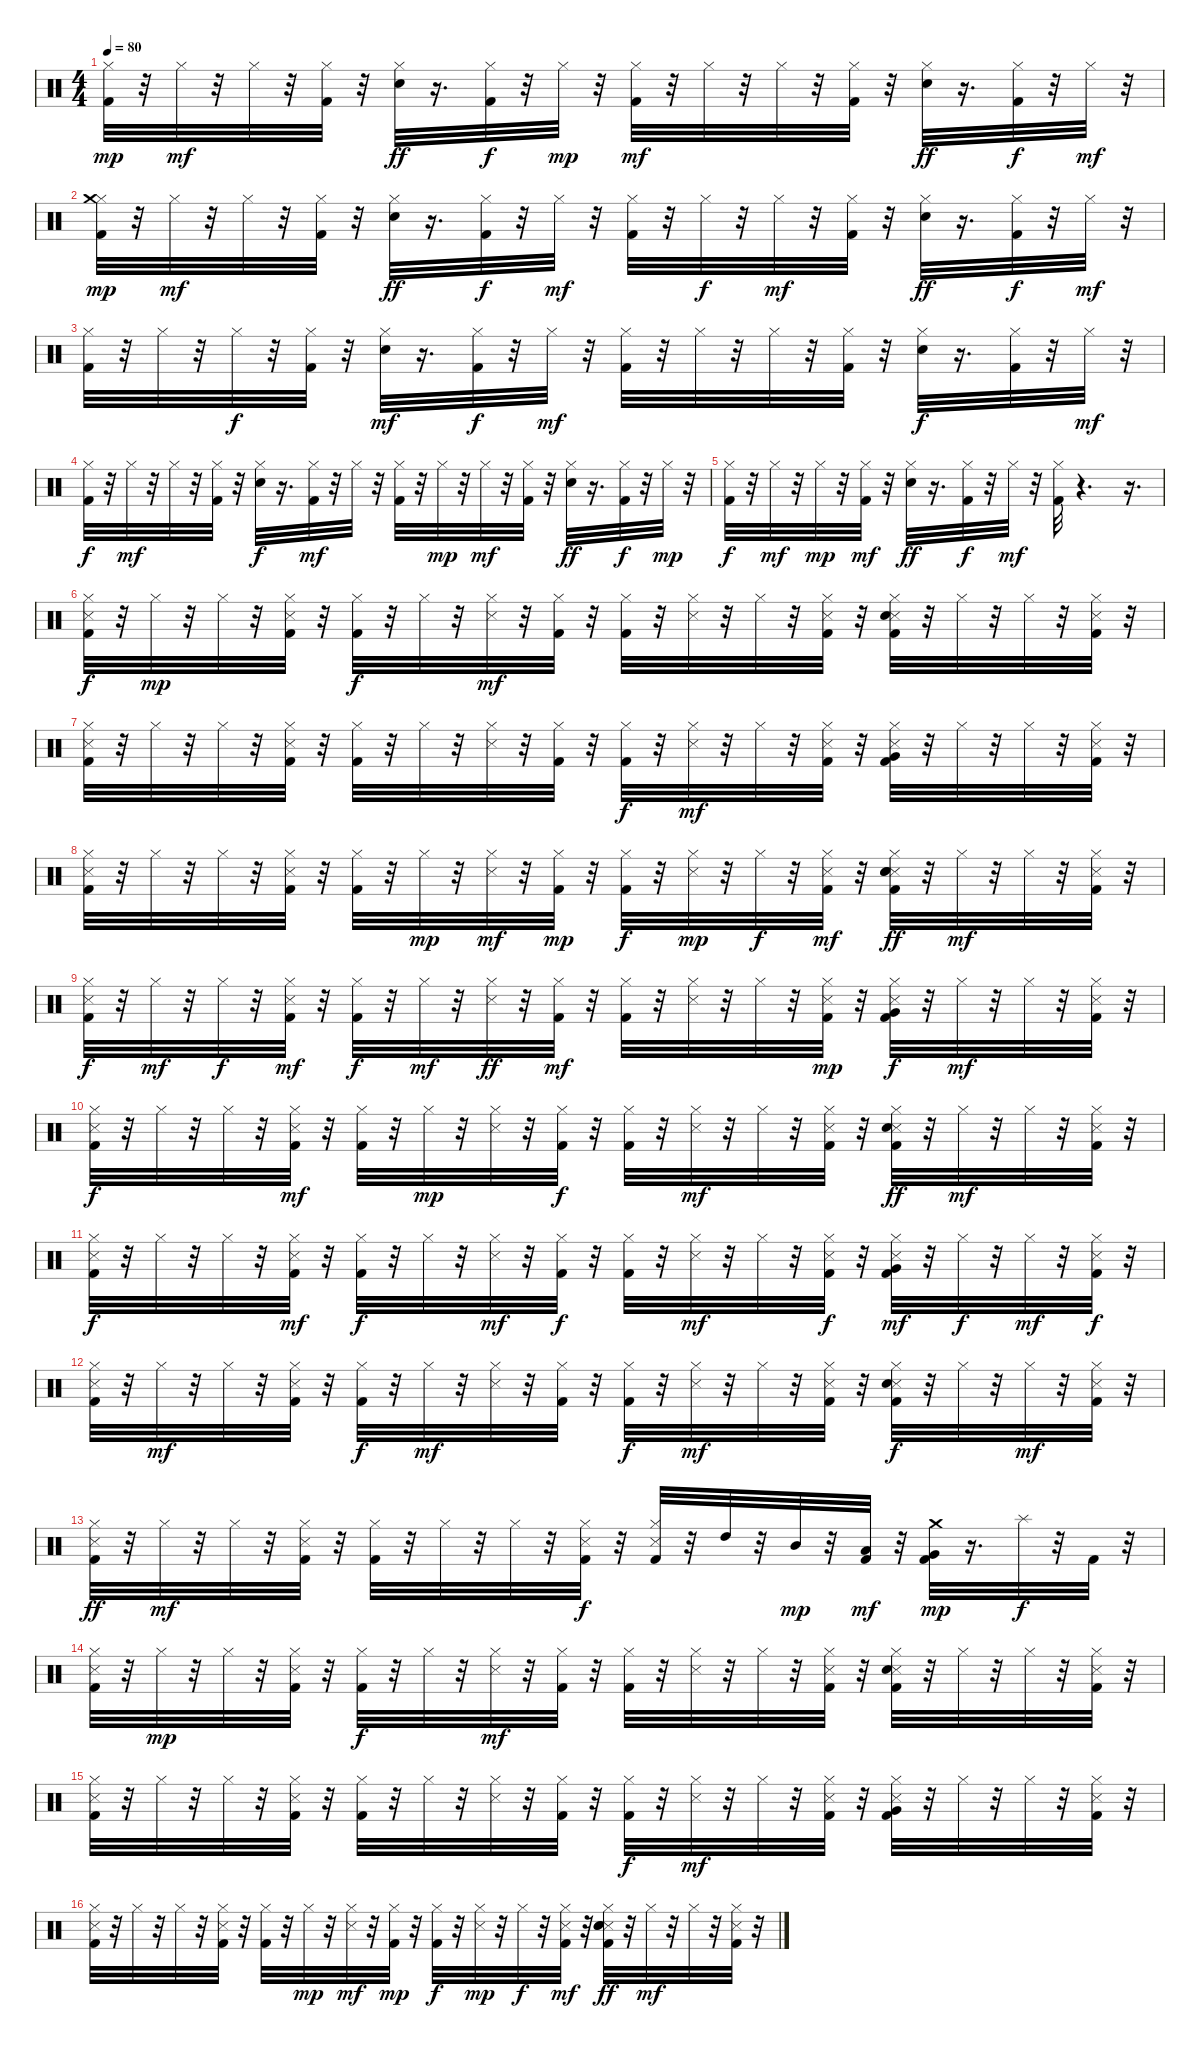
\track "" {instrument percussion}
\staff {score}
\articulation defaults
\ts (4 4)
\tempo 80
\clef neutral
\ks c
("Kick (hit) 2" "Hi-Hat (closed)").32{dy mp} r.32 "Hi-Hat (closed)".32{dy mf} r.32 "Hi-Hat (closed)".32 r.32 ("Kick (hit) 2" "Hi-Hat (closed)").32 r.32 ("Hi-Hat (closed)" "Snare (hit) 2").32{dy ff} r.16{d} ("Kick (hit) 2" "Hi-Hat (closed)").32{dy f} r.32 "Hi-Hat (closed)".32{dy mp} r.32 ("Kick (hit) 2" "Hi-Hat (closed)").32{dy mf} r.32 "Hi-Hat (closed)".32 r.32 "Hi-Hat (closed)".32 r.32 ("Kick (hit) 2" "Hi-Hat (closed)").32 r.32 ("Hi-Hat (closed)" "Snare (hit) 2").32{dy ff} r.16{d} ("Kick (hit) 2" "Hi-Hat (closed)").32{dy f} r.32 "Hi-Hat (closed)".32{dy mf} r.32 |
("Kick (hit) 2" "Hi-Hat (closed)" "Crash medium (hit)").32{dy mp} r.32 "Hi-Hat (closed)".32{dy mf} r.32 "Hi-Hat (closed)".32 r.32 ("Kick (hit) 2" "Hi-Hat (closed)").32 r.32 ("Hi-Hat (closed)" "Snare (hit) 2").32{dy ff} r.16{d} ("Kick (hit) 2" "Hi-Hat (closed)").32{dy f} r.32 "Hi-Hat (closed)".32{dy mf} r.32 ("Kick (hit) 2" "Hi-Hat (closed)").32 r.32 "Hi-Hat (closed)".32{dy f} r.32 "Hi-Hat (closed)".32{dy mf} r.32 ("Kick (hit) 2" "Hi-Hat (closed)").32 r.32 ("Hi-Hat (closed)" "Snare (hit) 2").32{dy ff} r.16{d} ("Kick (hit) 2" "Hi-Hat (closed)").32{dy f} r.32 "Hi-Hat (closed)".32{dy mf} r.32 |
("Kick (hit) 2" "Hi-Hat (closed)").32 r.32 "Hi-Hat (closed)".32 r.32 "Hi-Hat (closed)".32{dy f} r.32 ("Kick (hit) 2" "Hi-Hat (closed)").32 r.32 ("Hi-Hat (closed)" "Snare (hit) 2").32{dy mf} r.16{d} ("Kick (hit) 2" "Hi-Hat (closed)").32{dy f} r.32 "Hi-Hat (closed)".32{dy mf} r.32 ("Kick (hit) 2" "Hi-Hat (closed)").32 r.32 "Hi-Hat (closed)".32 r.32 "Hi-Hat (closed)".32 r.32 ("Kick (hit) 2" "Hi-Hat (closed)").32 r.32 ("Hi-Hat (closed)" "Snare (hit) 2").32{dy f} r.16{d} ("Kick (hit) 2" "Hi-Hat (closed)").32 r.32 "Hi-Hat (closed)".32{dy mf} r.32 |
("Kick (hit) 2" "Hi-Hat (closed)").32{dy f} r.32 "Hi-Hat (closed)".32{dy mf} r.32 "Hi-Hat (closed)".32 r.32 ("Kick (hit) 2" "Hi-Hat (closed)").32 r.32 ("Hi-Hat (closed)" "Snare (hit) 2").32{dy f} r.16{d} ("Kick (hit) 2" "Hi-Hat (closed)").32{dy mf} r.32 "Hi-Hat (closed)".32 r.32 ("Kick (hit) 2" "Hi-Hat (closed)").32 r.32 "Hi-Hat (closed)".32{dy mp} r.32 "Hi-Hat (closed)".32{dy mf} r.32 ("Kick (hit) 2" "Hi-Hat (closed)").32 r.32 ("Hi-Hat (closed)" "Snare (hit) 2").32{dy ff} r.16{d} ("Kick (hit) 2" "Hi-Hat (closed)").32{dy f} r.32 "Hi-Hat (closed)".32{dy mp} r.32 |
("Kick (hit) 2" "Hi-Hat (closed)").32{dy f} r.32 "Hi-Hat (closed)".32{dy mf} r.32 "Hi-Hat (closed)".32{dy mp} r.32 ("Kick (hit) 2" "Hi-Hat (closed)").32{dy mf} r.32 ("Hi-Hat (closed)" "Snare (hit) 2").32{dy ff} r.16{d} ("Kick (hit) 2" "Hi-Hat (closed)").32{dy f} r.32 "Hi-Hat (closed)".32{dy mf} r.32 ("Kick (hit) 2" "Hi-Hat (closed)").32 r.4{d} r.16{d} |
("Kick (hit) 2" "Snare (side stick) 3" "Hi-Hat (closed)").32{dy f} r.32 "Hi-Hat (closed)".32{dy mp} r.32 "Hi-Hat (closed)".32 r.32 ("Kick (hit) 2" "Snare (side stick) 3" "Hi-Hat (closed)").32 r.32 ("Kick (hit) 2" "Hi-Hat (closed)").32{dy f} r.32 "Hi-Hat (closed)".32 r.32 ("Snare (side stick) 3" "Hi-Hat (closed)").32{dy mf} r.32 ("Kick (hit) 2" "Hi-Hat (closed)").32 r.32 ("Kick (hit) 2" "Hi-Hat (closed)").32 r.32 ("Snare (side stick) 3" "Hi-Hat (closed)").32 r.32 "Hi-Hat (closed)".32 r.32 ("Kick (hit) 2" "Snare (side stick) 3" "Hi-Hat (closed)").32 r.32 ("Kick (hit) 2" "Snare (side stick) 3" "Snare (hit) 2" "Hi-Hat (closed)").32 r.32 "Hi-Hat (closed)".32 r.32 "Hi-Hat (closed)".32 r.32 ("Kick (hit) 2" "Snare (side stick) 3" "Hi-Hat (closed)").32 r.32 |
("Kick (hit) 2" "Snare (side stick) 3" "Hi-Hat (closed)").32 r.32 "Hi-Hat (closed)".32 r.32 "Hi-Hat (closed)".32 r.32 ("Kick (hit) 2" "Snare (side stick) 3" "Hi-Hat (closed)").32 r.32 ("Kick (hit) 2" "Hi-Hat (closed)").32 r.32 "Hi-Hat (closed)".32 r.32 ("Snare (side stick) 3" "Hi-Hat (closed)").32 r.32 ("Kick (hit) 2" "Hi-Hat (closed)").32 r.32 ("Kick (hit) 2" "Hi-Hat (closed)").32{dy f} r.32 ("Snare (side stick) 3" "Hi-Hat (closed)").32{dy mf} r.32 "Hi-Hat (closed)".32 r.32 ("Kick (hit) 2" "Snare (side stick) 3" "Hi-Hat (closed)").32 r.32 ("Kick (hit) 2" "Snare (side stick) 3" "Very Low Tom (hit)" "Hi-Hat (closed)").32 r.32 "Hi-Hat (closed)".32 r.32 "Hi-Hat (closed)".32 r.32 ("Kick (hit) 2" "Snare (side stick) 3" "Hi-Hat (closed)").32 r.32 |
("Kick (hit) 2" "Snare (side stick) 3" "Hi-Hat (closed)").32 r.32 "Hi-Hat (closed)".32 r.32 "Hi-Hat (closed)".32 r.32 ("Kick (hit) 2" "Snare (side stick) 3" "Hi-Hat (closed)").32 r.32 ("Kick (hit) 2" "Hi-Hat (closed)").32 r.32 "Hi-Hat (closed)".32{dy mp} r.32 ("Snare (side stick) 3" "Hi-Hat (closed)").32{dy mf} r.32 ("Kick (hit) 2" "Hi-Hat (closed)").32{dy mp} r.32 ("Kick (hit) 2" "Hi-Hat (closed)").32{dy f} r.32 ("Snare (side stick) 3" "Hi-Hat (closed)").32{dy mp} r.32 "Hi-Hat (closed)".32{dy f} r.32 ("Kick (hit) 2" "Snare (side stick) 3" "Hi-Hat (closed)").32{dy mf} r.32 ("Kick (hit) 2" "Snare (side stick) 3" "Snare (hit) 2" "Electric Snare (hit)" "Hi-Hat (closed)").32{dy ff} r.32 "Hi-Hat (closed)".32{dy mf} r.32 "Hi-Hat (closed)".32 r.32 ("Kick (hit) 2" "Snare (side stick) 3" "Hi-Hat (closed)").32 r.32 |
("Kick (hit) 2" "Snare (side stick) 3" "Hi-Hat (closed)").32{dy f} r.32 "Hi-Hat (closed)".32{dy mf} r.32 "Hi-Hat (closed)".32{dy f} r.32 ("Kick (hit) 2" "Snare (side stick) 3" "Hi-Hat (closed)").32{dy mf} r.32 ("Kick (hit) 2" "Hi-Hat (closed)").32{dy f} r.32 "Hi-Hat (closed)".32{dy mf} r.32 ("Snare (side stick) 3" "Hi-Hat (closed)").32{dy ff} r.32 ("Kick (hit) 2" "Hi-Hat (closed)").32{dy mf} r.32 ("Kick (hit) 2" "Hi-Hat (closed)").32 r.32 ("Snare (side stick) 3" "Hi-Hat (closed)").32 r.32 "Hi-Hat (closed)".32 r.32 ("Kick (hit) 2" "Snare (side stick) 3" "Hi-Hat (closed)").32{dy mp} r.32 ("Kick (hit) 2" "Snare (side stick) 3" "Very Low Tom (hit)" "Hi-Hat (closed)").32{dy f} r.32 "Hi-Hat (closed)".32{dy mf} r.32 "Hi-Hat (closed)".32 r.32 ("Kick (hit) 2" "Snare (side stick) 3" "Hi-Hat (closed)").32 r.32 |
("Kick (hit) 2" "Snare (side stick) 3" "Hi-Hat (closed)").32{dy f} r.32 "Hi-Hat (closed)".32 r.32 "Hi-Hat (closed)".32 r.32 ("Kick (hit) 2" "Snare (side stick) 3" "Hi-Hat (closed)").32{dy mf} r.32 ("Kick (hit) 2" "Hi-Hat (closed)").32 r.32 "Hi-Hat (closed)".32{dy mp} r.32 ("Snare (side stick) 3" "Hi-Hat (closed)").32 r.32 ("Kick (hit) 2" "Hi-Hat (closed)").32{dy f} r.32 ("Kick (hit) 2" "Hi-Hat (closed)").32 r.32 ("Snare (side stick) 3" "Hi-Hat (closed)").32{dy mf} r.32 "Hi-Hat (closed)".32 r.32 ("Kick (hit) 2" "Snare (side stick) 3" "Hi-Hat (closed)").32 r.32 ("Kick (hit) 2" "Snare (side stick) 3" "Snare (hit) 2" "Hi-Hat (closed)").32{dy ff} r.32 "Hi-Hat (closed)".32{dy mf} r.32 "Hi-Hat (closed)".32 r.32 ("Kick (hit) 2" "Snare (side stick) 3" "Hi-Hat (closed)").32 r.32 |
("Kick (hit) 2" "Snare (side stick) 3" "Hi-Hat (closed)").32{dy f} r.32 "Hi-Hat (closed)".32 r.32 "Hi-Hat (closed)".32 r.32 ("Kick (hit) 2" "Snare (side stick) 3" "Hi-Hat (closed)").32{dy mf} r.32 ("Kick (hit) 2" "Hi-Hat (closed)").32{dy f} r.32 "Hi-Hat (closed)".32 r.32 ("Snare (side stick) 3" "Hi-Hat (closed)").32{dy mf} r.32 ("Kick (hit) 2" "Hi-Hat (closed)").32{dy f} r.32 ("Kick (hit) 2" "Hi-Hat (closed)").32 r.32 ("Snare (side stick) 3" "Hi-Hat (closed)").32{dy mf} r.32 "Hi-Hat (closed)".32 r.32 ("Kick (hit) 2" "Snare (side stick) 3" "Hi-Hat (closed)").32{dy f} r.32 ("Kick (hit) 2" "Snare (side stick) 3" "Very Low Tom (hit)" "Hi-Hat (closed)").32{dy mf} r.32 "Hi-Hat (closed)".32{dy f} r.32 "Hi-Hat (closed)".32{dy mf} r.32 ("Kick (hit) 2" "Snare (side stick) 3" "Hi-Hat (closed)").32{dy f} r.32 |
("Kick (hit) 2" "Snare (side stick) 3" "Hi-Hat (closed)").32 r.32 "Hi-Hat (closed)".32{dy mf} r.32 "Hi-Hat (closed)".32 r.32 ("Kick (hit) 2" "Snare (side stick) 3" "Hi-Hat (closed)").32 r.32 ("Kick (hit) 2" "Hi-Hat (closed)").32{dy f} r.32 "Hi-Hat (closed)".32{dy mf} r.32 ("Snare (side stick) 3" "Hi-Hat (closed)").32 r.32 ("Kick (hit) 2" "Hi-Hat (closed)").32 r.32 ("Kick (hit) 2" "Hi-Hat (closed)").32{dy f} r.32 ("Snare (side stick) 3" "Hi-Hat (closed)").32{dy mf} r.32 "Hi-Hat (closed)".32 r.32 ("Kick (hit) 2" "Snare (side stick) 3" "Hi-Hat (closed)").32 r.32 ("Kick (hit) 2" "Snare (side stick) 3" "Snare (hit) 2" "Hi-Hat (closed)").32{dy f} r.32 "Hi-Hat (closed)".32 r.32 "Hi-Hat (closed)".32{dy mf} r.32 ("Kick (hit) 2" "Snare (side stick) 3" "Hi-Hat (closed)").32 r.32 |
("Kick (hit) 2" "Snare (side stick) 3" "Hi-Hat (closed)").32{dy ff} r.32 "Hi-Hat (closed)".32{dy mf} r.32 "Hi-Hat (closed)".32 r.32 ("Kick (hit) 2" "Snare (side stick) 3" "Hi-Hat (closed)").32 r.32 ("Kick (hit) 2" "Hi-Hat (closed)").32 r.32 "Hi-Hat (closed)".32 r.32 "Hi-Hat (closed)".32 r.32 ("Kick (hit) 2" "Snare (side stick) 3" "Hi-Hat (closed)").32{dy f} r.32 ("Kick (hit) 2" "Snare (side stick) 3" "Hi-Hat (closed)").32 r.32 "High Tom (hit)".32 r.32 "Mid Tom (hit)".32{dy mp} r.32 ("Kick (hit) 2" "Low Tom (hit)").32{dy mf} r.32 ("Kick (hit) 2" "Very Low Tom (hit)" "Crash medium (hit)").32{dy mp} r.16{d} "Splash (hit)".32{dy f} r.32 "Kick (hit) 2".32 r.32 |
("Kick (hit) 2" "Snare (side stick) 3" "Hi-Hat (closed)").32 r.32 "Hi-Hat (closed)".32{dy mp} r.32 "Hi-Hat (closed)".32 r.32 ("Kick (hit) 2" "Snare (side stick) 3" "Hi-Hat (closed)").32 r.32 ("Kick (hit) 2" "Hi-Hat (closed)").32{dy f} r.32 "Hi-Hat (closed)".32 r.32 ("Snare (side stick) 3" "Hi-Hat (closed)").32{dy mf} r.32 ("Kick (hit) 2" "Hi-Hat (closed)").32 r.32 ("Kick (hit) 2" "Hi-Hat (closed)").32 r.32 ("Snare (side stick) 3" "Hi-Hat (closed)").32 r.32 "Hi-Hat (closed)".32 r.32 ("Kick (hit) 2" "Snare (side stick) 3" "Hi-Hat (closed)").32 r.32 ("Kick (hit) 2" "Snare (side stick) 3" "Snare (hit) 2" "Hi-Hat (closed)").32 r.32 "Hi-Hat (closed)".32 r.32 "Hi-Hat (closed)".32 r.32 ("Kick (hit) 2" "Snare (side stick) 3" "Hi-Hat (closed)").32 r.32 |
("Kick (hit) 2" "Snare (side stick) 3" "Hi-Hat (closed)").32 r.32 "Hi-Hat (closed)".32 r.32 "Hi-Hat (closed)".32 r.32 ("Kick (hit) 2" "Snare (side stick) 3" "Hi-Hat (closed)").32 r.32 ("Kick (hit) 2" "Hi-Hat (closed)").32 r.32 "Hi-Hat (closed)".32 r.32 ("Snare (side stick) 3" "Hi-Hat (closed)").32 r.32 ("Kick (hit) 2" "Hi-Hat (closed)").32 r.32 ("Kick (hit) 2" "Hi-Hat (closed)").32{dy f} r.32 ("Snare (side stick) 3" "Hi-Hat (closed)").32{dy mf} r.32 "Hi-Hat (closed)".32 r.32 ("Kick (hit) 2" "Snare (side stick) 3" "Hi-Hat (closed)").32 r.32 ("Kick (hit) 2" "Snare (side stick) 3" "Very Low Tom (hit)" "Hi-Hat (closed)").32 r.32 "Hi-Hat (closed)".32 r.32 "Hi-Hat (closed)".32 r.32 ("Kick (hit) 2" "Snare (side stick) 3" "Hi-Hat (closed)").32 r.32 |
("Kick (hit) 2" "Snare (side stick) 3" "Hi-Hat (closed)").32 r.32 "Hi-Hat (closed)".32 r.32 "Hi-Hat (closed)".32 r.32 ("Kick (hit) 2" "Snare (side stick) 3" "Hi-Hat (closed)").32 r.32 ("Kick (hit) 2" "Hi-Hat (closed)").32 r.32 "Hi-Hat (closed)".32{dy mp} r.32 ("Snare (side stick) 3" "Hi-Hat (closed)").32{dy mf} r.32 ("Kick (hit) 2" "Hi-Hat (closed)").32{dy mp} r.32 ("Kick (hit) 2" "Hi-Hat (closed)").32{dy f} r.32 ("Snare (side stick) 3" "Hi-Hat (closed)").32{dy mp} r.32 "Hi-Hat (closed)".32{dy f} r.32 ("Kick (hit) 2" "Snare (side stick) 3" "Hi-Hat (closed)").32{dy mf} r.32 ("Kick (hit) 2" "Snare (side stick) 3" "Snare (hit) 2" "Electric Snare (hit)" "Hi-Hat (closed)").32{dy ff} r.32 "Hi-Hat (closed)".32{dy mf} r.32 "Hi-Hat (closed)".32 r.32 ("Kick (hit) 2" "Snare (side stick) 3" "Hi-Hat (closed)").32 r.32
